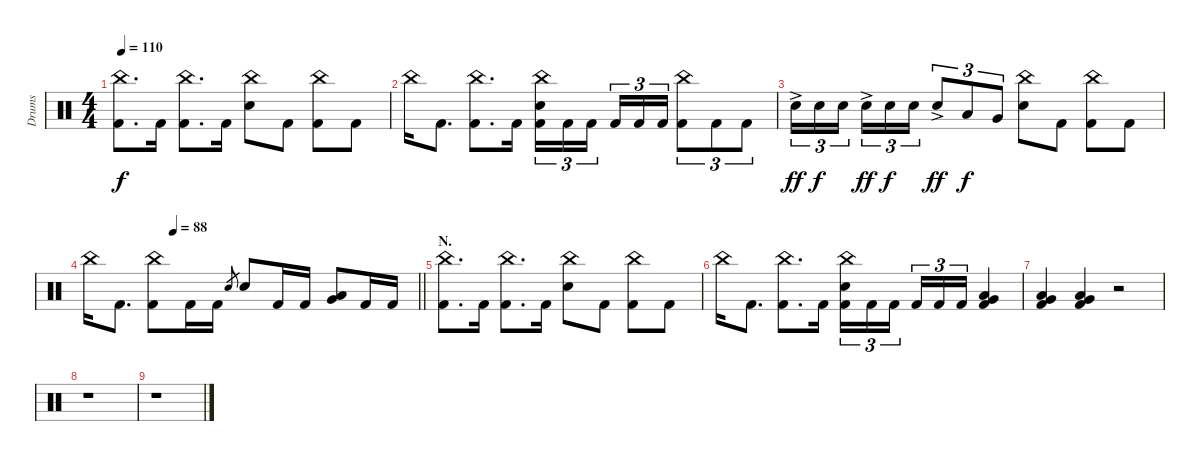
\track ("Drums" "Drums") {instrument percussion}
\staff {score}
\articulation defaults
\ts (4 4)
\tempo 110
\clef neutral
\ks c
("China (hit)" "Kick (hit) 2").8{d dy f} "Kick (hit) 2".16 ("China (hit)" "Kick (hit) 2").8{d} "Kick (hit) 2".16 ("China (hit)" "Electric Snare (hit)").8 "Kick (hit) 2".8 ("China (hit)" "Kick (hit) 2").8 "Kick (hit) 2".8 |
"China (hit)".16 "Kick (hit) 2".8{d} ("China (hit)" "Kick (hit) 2").8{d} "Kick (hit) 2".16 ("China (hit)" "Electric Snare (hit)" "Kick (hit) 2").16{tu (3 2)} "Kick (hit) 2".16{tu (3 2)} "Kick (hit) 2".16{tu (3 2) beam splitsecondary} "Kick (hit) 2".16{tu (3 2)} "Kick (hit) 2".16{tu (3 2)} "Kick (hit) 2".16{tu (3 2)} ("China (hit)" "Kick (hit) 2").8{tu (3 2)} "Kick (hit) 2".8{tu (3 2)} "Kick (hit) 2".8{tu (3 2)} |
"Electric Snare (hit)"{ac}.16{tu (3 2) dy ff} "Electric Snare (hit)".16{tu (3 2) dy f} "Electric Snare (hit)".16{tu (3 2) beam splitsecondary} "Electric Snare (hit)"{ac}.16{tu (3 2) dy ff} "Electric Snare (hit)".16{tu (3 2) dy f} "Electric Snare (hit)".16{tu (3 2)} "Electric Snare (hit)"{ac}.8{tu (3 2) dy ff} "Low Tom (hit)".8{tu (3 2) dy f} "Very Low Tom (hit)".8{tu (3 2)} ("China (hit)" "Electric Snare (hit)").8 "Kick (hit) 2".8 ("China (hit)" "Kick (hit) 2").8 "Kick (hit) 2".8 |
\tempo (88 0.25)
\barLineRight lightlight "China (hit)".16 "Kick (hit) 2".8{d}
("China (hit)" "Kick (hit) 2").8 "Kick (hit) 2".16 "Kick (hit) 2".16 "Electric Snare (hit)".8{gr} "Electric Snare (hit)".8 "Kick (hit) 2".16 "Kick (hit) 2".16 ("Very Low Tom (hit)" "Low Floor Tom (hit)").8{bu 120} "Kick (hit) 2".16 "Kick (hit) 2".16 |
\section ("" "N.")
("China (hit)" "Kick (hit) 2").8{d} "Kick (hit) 2".16 ("China (hit)" "Kick (hit) 2").8{d} "Kick (hit) 2".16 ("China (hit)" "Electric Snare (hit)").8 "Kick (hit) 2".8 ("China (hit)" "Kick (hit) 2").8 "Kick (hit) 2".8 |
"China (hit)".16 "Kick (hit) 2".8{d} ("China (hit)" "Kick (hit) 2").8{d} "Kick (hit) 2".16 ("China (hit)" "Electric Snare (hit)" "Kick (hit) 2").16{tu (3 2)} "Kick (hit) 2".16{tu (3 2)} "Kick (hit) 2".16{tu (3 2) beam splitsecondary} "Kick (hit) 2".16{tu (3 2)} "Kick (hit) 2".16{tu (3 2)} "Kick (hit) 2".16{tu (3 2)} ("Very Low Tom (hit)" "Low Floor Tom (hit)" "Kick (hit) 2").4 |
("Very Low Tom (hit)" "Low Floor Tom (hit)" "Kick (hit) 2").4 ("Very Low Tom (hit)" "Low Floor Tom (hit)" "Kick (hit) 2").4 r.2 |
r.1 |
r.1
